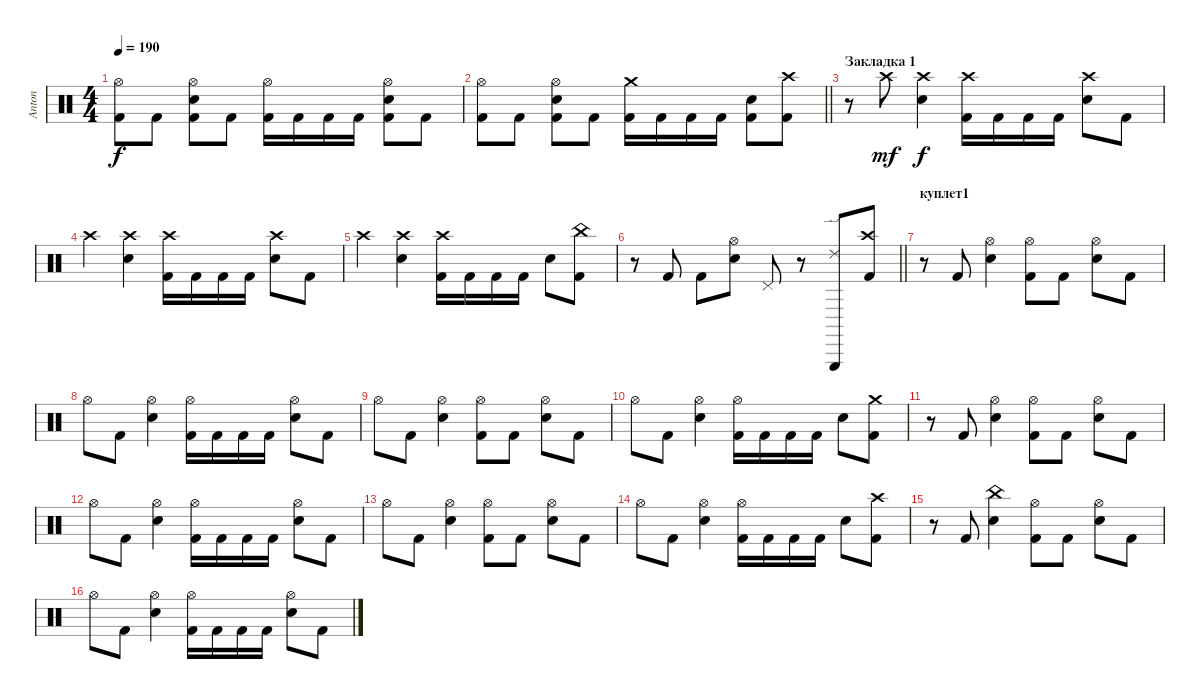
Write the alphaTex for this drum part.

\track ("Anton" "Anton") {instrument percussion}
\staff {score}
\articulation defaults
\ts (4 4)
\tempo 190
\clef neutral
\ks c
("Hi-Hat (open)" "Kick (hit) 2").8{dy f} "Kick (hit) 2".8 ("Hi-Hat (open)" "Electric Snare (hit)" "Kick (hit) 2").8 "Kick (hit) 2".8 ("Hi-Hat (open)" "Kick (hit) 2").16 "Kick (hit) 2".16 "Kick (hit) 2".16 "Kick (hit) 2".16 ("Hi-Hat (open)" "Electric Snare (hit)" "Kick (hit) 2").8 "Kick (hit) 2".8 |
\barLineRight lightlight
("Hi-Hat (open)" "Kick (hit) 2").8 "Kick (hit) 2".8 ("Hi-Hat (open)" "Electric Snare (hit)" "Kick (hit) 2").8 "Kick (hit) 2".8 ("Crash medium (hit)" "Kick (hit) 2").16 "Kick (hit) 2".16 "Kick (hit) 2".16 "Kick (hit) 2".16 ("Electric Snare (hit)" "Kick (hit) 2").8 ("Crash high (hit)" "Kick (hit) 2").8 |
\section ("" "Закладка 1")
r.8 "Crash high (hit)".8{dy mf} ("Crash high (hit)" "Electric Snare (hit)").4{dy f} ("Crash high (hit)" "Kick (hit) 2").16 "Kick (hit) 2".16 "Kick (hit) 2".16 "Kick (hit) 2".16 ("Crash high (hit)" "Electric Snare (hit)").8 "Kick (hit) 2".8 |
"Crash high (hit)".4 ("Crash high (hit)" "Electric Snare (hit)").4 ("Crash high (hit)" "Kick (hit) 2").16 "Kick (hit) 2".16 "Kick (hit) 2".16 "Kick (hit) 2".16 ("Crash high (hit)" "Electric Snare (hit)").8 "Kick (hit) 2".8 |
"Crash high (hit)".4 ("Crash high (hit)" "Electric Snare (hit)").4 ("Crash high (hit)" "Kick (hit) 2").16 "Kick (hit) 2".16 "Kick (hit) 2".16 "Kick (hit) 2".16 "Electric Snare (hit)".8 ("China (hit)" "Kick (hit) 2").8 |
\barLineRight lightlight
r.8 "Kick (hit) 2".8 "Kick (hit) 2".8 ("Hi-Hat (open)" "Electric Snare (hit)").8 "Pedal Hi-Hat (hit)".8 r.8 ("Triangle (hit)" "Ride (edge) 2").8 ("Crash high (hit)" "Kick (hit) 2").8 |
\section ("" "куплет1 ")
r.8 "Kick (hit) 2".8 ("Hi-Hat (open)" "Electric Snare (hit)").4 ("Hi-Hat (open)" "Kick (hit) 2").8 "Kick (hit) 2".8 ("Hi-Hat (open)" "Electric Snare (hit)").8 "Kick (hit) 2".8 |
"Hi-Hat (open)".8 "Kick (hit) 2".8 ("Hi-Hat (open)" "Electric Snare (hit)").4 ("Hi-Hat (open)" "Kick (hit) 2").16 "Kick (hit) 2".16 "Kick (hit) 2".16 "Kick (hit) 2".16 ("Hi-Hat (open)" "Electric Snare (hit)").8 "Kick (hit) 2".8 |
"Hi-Hat (open)".8 "Kick (hit) 2".8 ("Hi-Hat (open)" "Electric Snare (hit)").4 ("Hi-Hat (open)" "Kick (hit) 2").8 "Kick (hit) 2".8 ("Hi-Hat (open)" "Electric Snare (hit)").8 "Kick (hit) 2".8 |
"Hi-Hat (open)".8 "Kick (hit) 2".8 ("Hi-Hat (open)" "Electric Snare (hit)").4 ("Hi-Hat (open)" "Kick (hit) 2").16 "Kick (hit) 2".16 "Kick (hit) 2".16 "Kick (hit) 2".16 "Electric Snare (hit)".8 ("Crash medium (hit)" "Kick (hit) 2").8 |
r.8 "Kick (hit) 2".8 ("Hi-Hat (open)" "Electric Snare (hit)").4 ("Hi-Hat (open)" "Kick (hit) 2").8 "Kick (hit) 2".8 ("Hi-Hat (open)" "Electric Snare (hit)").8 "Kick (hit) 2".8 |
"Hi-Hat (open)".8 "Kick (hit) 2".8 ("Hi-Hat (open)" "Electric Snare (hit)").4 ("Hi-Hat (open)" "Kick (hit) 2").16 "Kick (hit) 2".16 "Kick (hit) 2".16 "Kick (hit) 2".16 ("Hi-Hat (open)" "Electric Snare (hit)").8 "Kick (hit) 2".8 |
"Hi-Hat (open)".8 "Kick (hit) 2".8 ("Hi-Hat (open)" "Electric Snare (hit)").4 ("Hi-Hat (open)" "Kick (hit) 2").8 "Kick (hit) 2".8 ("Hi-Hat (open)" "Electric Snare (hit)").8 "Kick (hit) 2".8 |
"Hi-Hat (open)".8 "Kick (hit) 2".8 ("Hi-Hat (open)" "Electric Snare (hit)").4 ("Hi-Hat (open)" "Kick (hit) 2").16 "Kick (hit) 2".16 "Kick (hit) 2".16 "Kick (hit) 2".16 "Electric Snare (hit)".8 ("Crash high (hit)" "Kick (hit) 2").8 |
r.8 "Kick (hit) 2".8 ("China (hit)" "Electric Snare (hit)").4 ("Hi-Hat (open)" "Kick (hit) 2").8 "Kick (hit) 2".8 ("Hi-Hat (open)" "Electric Snare (hit)").8 "Kick (hit) 2".8 |
"Hi-Hat (open)".8 "Kick (hit) 2".8 ("Hi-Hat (open)" "Electric Snare (hit)").4 ("Hi-Hat (open)" "Kick (hit) 2").16 "Kick (hit) 2".16 "Kick (hit) 2".16 "Kick (hit) 2".16 ("Hi-Hat (open)" "Electric Snare (hit)").8 "Kick (hit) 2".8
